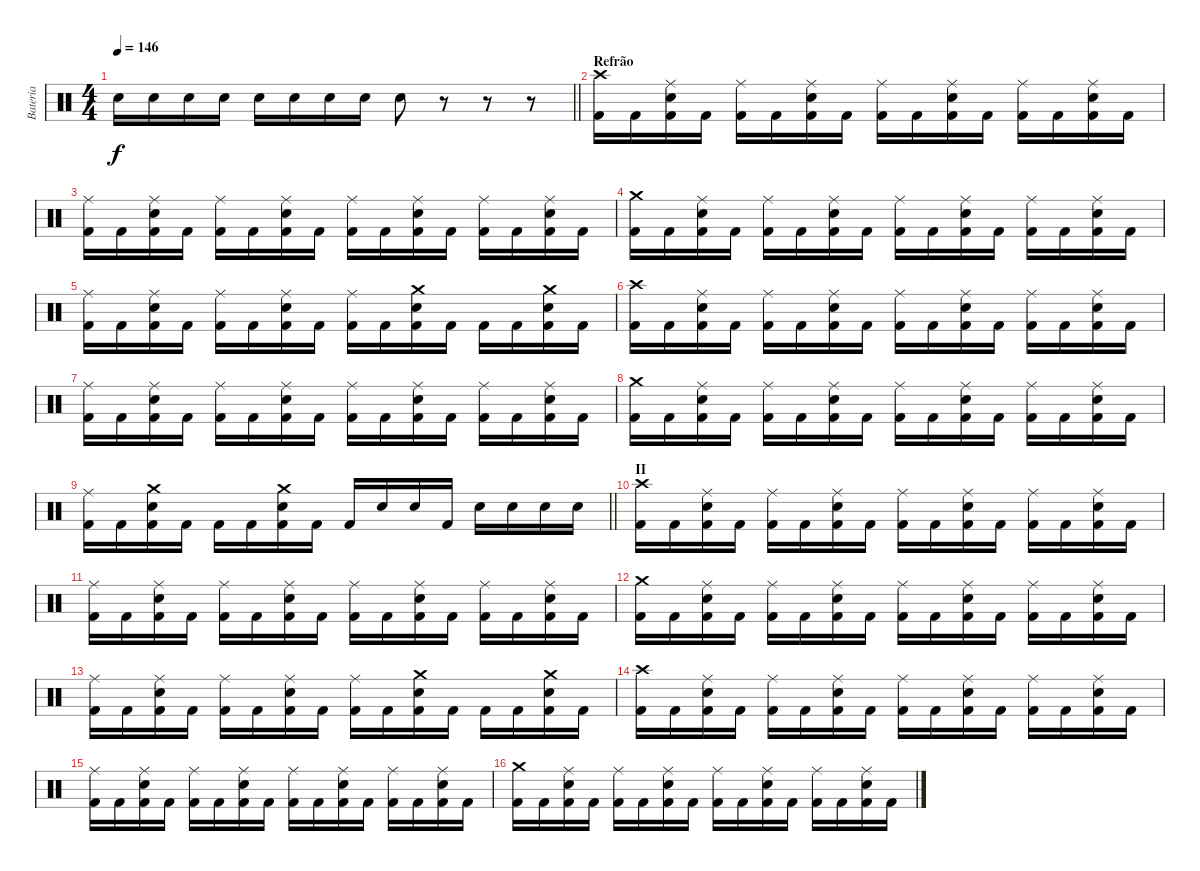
\track ("Bateria" "Bateria") {instrument percussion}
\staff {score}
\articulation defaults
\ts (4 4)
\tempo 146
\clef neutral
\barLineRight lightlight
\ks c "Electric Snare (hit)".16{dy f} "Electric Snare (hit)".16 "Electric Snare (hit)".16 "Electric Snare (hit)".16 "Electric Snare (hit)".16 "Electric Snare (hit)".16 "Electric Snare (hit)".16 "Electric Snare (hit)".16 "Electric Snare (hit)".8
r.8 r.8 r.8 |
\section ("" "Refrão")
("Kick (hit) 2" "Crash high (hit)").16 "Kick (hit) 2".16 ("Kick (hit) 2" "Electric Snare (hit)" "Ride (middle)").16 "Kick (hit) 2".16 ("Kick (hit) 2" "Ride (middle)").16 "Kick (hit) 2".16 ("Kick (hit) 2" "Electric Snare (hit)" "Ride (middle)").16 "Kick (hit) 2".16 ("Kick (hit) 2" "Ride (middle)").16 "Kick (hit) 2".16 ("Kick (hit) 2" "Electric Snare (hit)" "Ride (middle)").16 "Kick (hit) 2".16 ("Kick (hit) 2" "Ride (middle)").16 "Kick (hit) 2".16 ("Kick (hit) 2" "Electric Snare (hit)" "Ride (middle)").16 "Kick (hit) 2".16 |
("Kick (hit) 2" "Ride (middle)").16 "Kick (hit) 2".16 ("Kick (hit) 2" "Electric Snare (hit)" "Ride (middle)").16 "Kick (hit) 2".16 ("Kick (hit) 2" "Ride (middle)").16 "Kick (hit) 2".16 ("Kick (hit) 2" "Electric Snare (hit)" "Ride (middle)").16 "Kick (hit) 2".16 ("Kick (hit) 2" "Ride (middle)").16 "Kick (hit) 2".16 ("Kick (hit) 2" "Electric Snare (hit)" "Ride (middle)").16 "Kick (hit) 2".16 ("Kick (hit) 2" "Ride (middle)").16 "Kick (hit) 2".16 ("Kick (hit) 2" "Electric Snare (hit)" "Ride (middle)").16 "Kick (hit) 2".16 |
("Kick (hit) 2" "Crash medium (hit)").16 "Kick (hit) 2".16 ("Kick (hit) 2" "Electric Snare (hit)" "Ride (middle)").16 "Kick (hit) 2".16 ("Kick (hit) 2" "Ride (middle)").16 "Kick (hit) 2".16 ("Kick (hit) 2" "Electric Snare (hit)" "Ride (middle)").16 "Kick (hit) 2".16 ("Kick (hit) 2" "Ride (middle)").16 "Kick (hit) 2".16 ("Kick (hit) 2" "Electric Snare (hit)" "Ride (middle)").16 "Kick (hit) 2".16 ("Kick (hit) 2" "Ride (middle)").16 "Kick (hit) 2".16 ("Kick (hit) 2" "Electric Snare (hit)" "Ride (middle)").16 "Kick (hit) 2".16 |
("Kick (hit) 2" "Ride (middle)").16 "Kick (hit) 2".16 ("Kick (hit) 2" "Electric Snare (hit)" "Ride (middle)").16 "Kick (hit) 2".16 ("Kick (hit) 2" "Ride (middle)").16 "Kick (hit) 2".16 ("Kick (hit) 2" "Electric Snare (hit)" "Ride (middle)").16 "Kick (hit) 2".16 ("Kick (hit) 2" "Ride (middle)").16 "Kick (hit) 2".16 ("Kick (hit) 2" "Electric Snare (hit)" "Crash medium (hit)").16 "Kick (hit) 2".16 "Kick (hit) 2".16 "Kick (hit) 2".16 ("Kick (hit) 2" "Electric Snare (hit)" "Crash medium (hit)").16 "Kick (hit) 2".16 |
("Kick (hit) 2" "Crash high (hit)").16 "Kick (hit) 2".16 ("Kick (hit) 2" "Electric Snare (hit)" "Ride (middle)").16 "Kick (hit) 2".16 ("Kick (hit) 2" "Ride (middle)").16 "Kick (hit) 2".16 ("Kick (hit) 2" "Electric Snare (hit)" "Ride (middle)").16 "Kick (hit) 2".16 ("Kick (hit) 2" "Ride (middle)").16 "Kick (hit) 2".16 ("Kick (hit) 2" "Electric Snare (hit)" "Ride (middle)").16 "Kick (hit) 2".16 ("Kick (hit) 2" "Ride (middle)").16 "Kick (hit) 2".16 ("Kick (hit) 2" "Electric Snare (hit)" "Ride (middle)").16 "Kick (hit) 2".16 |
("Kick (hit) 2" "Ride (middle)").16 "Kick (hit) 2".16 ("Kick (hit) 2" "Electric Snare (hit)" "Ride (middle)").16 "Kick (hit) 2".16 ("Kick (hit) 2" "Ride (middle)").16 "Kick (hit) 2".16 ("Kick (hit) 2" "Electric Snare (hit)" "Ride (middle)").16 "Kick (hit) 2".16 ("Kick (hit) 2" "Ride (middle)").16 "Kick (hit) 2".16 ("Kick (hit) 2" "Electric Snare (hit)" "Ride (middle)").16 "Kick (hit) 2".16 ("Kick (hit) 2" "Ride (middle)").16 "Kick (hit) 2".16 ("Kick (hit) 2" "Electric Snare (hit)" "Ride (middle)").16 "Kick (hit) 2".16 |
("Kick (hit) 2" "Crash medium (hit)").16 "Kick (hit) 2".16 ("Kick (hit) 2" "Electric Snare (hit)" "Ride (middle)").16 "Kick (hit) 2".16 ("Kick (hit) 2" "Ride (middle)").16 "Kick (hit) 2".16 ("Kick (hit) 2" "Electric Snare (hit)" "Ride (middle)").16 "Kick (hit) 2".16 ("Kick (hit) 2" "Ride (middle)").16 "Kick (hit) 2".16 ("Kick (hit) 2" "Electric Snare (hit)" "Ride (middle)").16 "Kick (hit) 2".16 ("Kick (hit) 2" "Ride (middle)").16 "Kick (hit) 2".16 ("Kick (hit) 2" "Electric Snare (hit)" "Ride (middle)").16 "Kick (hit) 2".16 |
\barLineRight lightlight
("Kick (hit) 2" "Ride (middle)").16 "Kick (hit) 2".16 ("Kick (hit) 2" "Electric Snare (hit)" "Crash medium (hit)").16 "Kick (hit) 2".16 "Kick (hit) 2".16 "Kick (hit) 2".16 ("Kick (hit) 2" "Electric Snare (hit)" "Crash medium (hit)").16 "Kick (hit) 2".16 "Kick (hit) 2".16 "Electric Snare (hit)".16 "Electric Snare (hit)".16 "Kick (hit) 2".16 "Electric Snare (hit)".16 "Electric Snare (hit)".16 "Electric Snare (hit)".16 "Electric Snare (hit)".16 |
\section ("" "II")
("Kick (hit) 2" "Crash high (hit)").16 "Kick (hit) 2".16 ("Kick (hit) 2" "Electric Snare (hit)" "Ride (middle)").16 "Kick (hit) 2".16 ("Kick (hit) 2" "Ride (middle)").16 "Kick (hit) 2".16 ("Kick (hit) 2" "Electric Snare (hit)" "Ride (middle)").16 "Kick (hit) 2".16 ("Kick (hit) 2" "Ride (middle)").16 "Kick (hit) 2".16 ("Kick (hit) 2" "Electric Snare (hit)" "Ride (middle)").16 "Kick (hit) 2".16 ("Kick (hit) 2" "Ride (middle)").16 "Kick (hit) 2".16 ("Kick (hit) 2" "Electric Snare (hit)" "Ride (middle)").16 "Kick (hit) 2".16 |
("Kick (hit) 2" "Ride (middle)").16 "Kick (hit) 2".16 ("Kick (hit) 2" "Electric Snare (hit)" "Ride (middle)").16 "Kick (hit) 2".16 ("Kick (hit) 2" "Ride (middle)").16 "Kick (hit) 2".16 ("Kick (hit) 2" "Electric Snare (hit)" "Ride (middle)").16 "Kick (hit) 2".16 ("Kick (hit) 2" "Ride (middle)").16 "Kick (hit) 2".16 ("Kick (hit) 2" "Electric Snare (hit)" "Ride (middle)").16 "Kick (hit) 2".16 ("Kick (hit) 2" "Ride (middle)").16 "Kick (hit) 2".16 ("Kick (hit) 2" "Electric Snare (hit)" "Ride (middle)").16 "Kick (hit) 2".16 |
("Kick (hit) 2" "Crash medium (hit)").16 "Kick (hit) 2".16 ("Kick (hit) 2" "Electric Snare (hit)" "Ride (middle)").16 "Kick (hit) 2".16 ("Kick (hit) 2" "Ride (middle)").16 "Kick (hit) 2".16 ("Kick (hit) 2" "Electric Snare (hit)" "Ride (middle)").16 "Kick (hit) 2".16 ("Kick (hit) 2" "Ride (middle)").16 "Kick (hit) 2".16 ("Kick (hit) 2" "Electric Snare (hit)" "Ride (middle)").16 "Kick (hit) 2".16 ("Kick (hit) 2" "Ride (middle)").16 "Kick (hit) 2".16 ("Kick (hit) 2" "Electric Snare (hit)" "Ride (middle)").16 "Kick (hit) 2".16 |
("Kick (hit) 2" "Ride (middle)").16 "Kick (hit) 2".16 ("Kick (hit) 2" "Electric Snare (hit)" "Ride (middle)").16 "Kick (hit) 2".16 ("Kick (hit) 2" "Ride (middle)").16 "Kick (hit) 2".16 ("Kick (hit) 2" "Electric Snare (hit)" "Ride (middle)").16 "Kick (hit) 2".16 ("Kick (hit) 2" "Ride (middle)").16 "Kick (hit) 2".16 ("Kick (hit) 2" "Electric Snare (hit)" "Crash medium (hit)").16 "Kick (hit) 2".16 "Kick (hit) 2".16 "Kick (hit) 2".16 ("Kick (hit) 2" "Electric Snare (hit)" "Crash medium (hit)").16 "Kick (hit) 2".16 |
("Kick (hit) 2" "Crash high (hit)").16 "Kick (hit) 2".16 ("Kick (hit) 2" "Electric Snare (hit)" "Ride (middle)").16 "Kick (hit) 2".16 ("Kick (hit) 2" "Ride (middle)").16 "Kick (hit) 2".16 ("Kick (hit) 2" "Electric Snare (hit)" "Ride (middle)").16 "Kick (hit) 2".16 ("Kick (hit) 2" "Ride (middle)").16 "Kick (hit) 2".16 ("Kick (hit) 2" "Electric Snare (hit)" "Ride (middle)").16 "Kick (hit) 2".16 ("Kick (hit) 2" "Ride (middle)").16 "Kick (hit) 2".16 ("Kick (hit) 2" "Electric Snare (hit)" "Ride (middle)").16 "Kick (hit) 2".16 |
("Kick (hit) 2" "Ride (middle)").16 "Kick (hit) 2".16 ("Kick (hit) 2" "Electric Snare (hit)" "Ride (middle)").16 "Kick (hit) 2".16 ("Kick (hit) 2" "Ride (middle)").16 "Kick (hit) 2".16 ("Kick (hit) 2" "Electric Snare (hit)" "Ride (middle)").16 "Kick (hit) 2".16 ("Kick (hit) 2" "Ride (middle)").16 "Kick (hit) 2".16 ("Kick (hit) 2" "Electric Snare (hit)" "Ride (middle)").16 "Kick (hit) 2".16 ("Kick (hit) 2" "Ride (middle)").16 "Kick (hit) 2".16 ("Kick (hit) 2" "Electric Snare (hit)" "Ride (middle)").16 "Kick (hit) 2".16 |
("Kick (hit) 2" "Crash medium (hit)").16 "Kick (hit) 2".16 ("Kick (hit) 2" "Electric Snare (hit)" "Ride (middle)").16 "Kick (hit) 2".16 ("Kick (hit) 2" "Ride (middle)").16 "Kick (hit) 2".16 ("Kick (hit) 2" "Electric Snare (hit)" "Ride (middle)").16 "Kick (hit) 2".16 ("Kick (hit) 2" "Ride (middle)").16 "Kick (hit) 2".16 ("Kick (hit) 2" "Electric Snare (hit)" "Ride (middle)").16 "Kick (hit) 2".16 ("Kick (hit) 2" "Ride (middle)").16 "Kick (hit) 2".16 ("Kick (hit) 2" "Electric Snare (hit)" "Ride (middle)").16 "Kick (hit) 2".16
